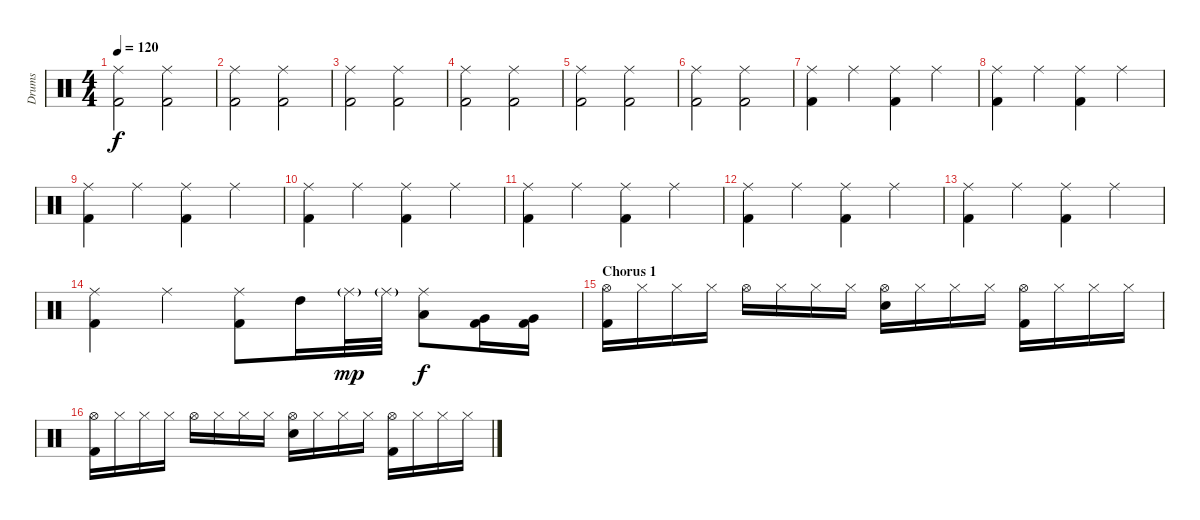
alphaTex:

\track ("Drums" "Drums") {instrument percussion}
\staff {score}
\articulation defaults
\ts (4 4)
\tempo 120
\clef neutral
\ks c
("Ride (middle)" "Kick (hit) 2").2{dy f} ("Ride (middle)" "Kick (hit) 2").2 |
("Ride (middle)" "Kick (hit) 2").2 ("Ride (middle)" "Kick (hit) 2").2 |
("Ride (middle)" "Kick (hit) 2").2 ("Ride (middle)" "Kick (hit) 2").2 |
("Ride (middle)" "Kick (hit) 2").2 ("Ride (middle)" "Kick (hit) 2").2 |
("Ride (middle)" "Kick (hit) 2").2 ("Ride (middle)" "Kick (hit) 2").2 |
("Ride (middle)" "Kick (hit) 2").2 ("Ride (middle)" "Kick (hit) 2").2 |
("Ride (middle)" "Kick (hit) 2").4 "Ride (middle)".4 ("Ride (middle)" "Kick (hit) 2").4 "Ride (middle)".4 |
("Ride (middle)" "Kick (hit) 2").4 "Ride (middle)".4 ("Ride (middle)" "Kick (hit) 2").4 "Ride (middle)".4 |
("Ride (middle)" "Kick (hit) 2").4 "Ride (middle)".4 ("Ride (middle)" "Kick (hit) 2").4 "Ride (middle)".4 |
("Ride (middle)" "Kick (hit) 2").4 "Ride (middle)".4 ("Ride (middle)" "Kick (hit) 2").4 "Ride (middle)".4 |
("Ride (middle)" "Kick (hit) 2").4 "Ride (middle)".4 ("Ride (middle)" "Kick (hit) 2").4 "Ride (middle)".4 |
("Ride (middle)" "Kick (hit) 2").4 "Ride (middle)".4 ("Ride (middle)" "Kick (hit) 2").4 "Ride (middle)".4 |
("Ride (middle)" "Kick (hit) 2").4 "Ride (middle)".4 ("Ride (middle)" "Kick (hit) 2").4 "Ride (middle)".4 |
("Ride (middle)" "Kick (hit) 2").4 "Ride (middle)".4 ("Ride (middle)" "Kick (hit) 2").8 "High Tom (hit)".16 "Ride (middle)"{g}.32{dy mp} "Ride (middle)"{g}.32 ("Ride (middle)" "Low Tom (hit)").8{dy f} ("Very Low Tom (hit)" "Kick (hit) 2").16 ("Very Low Tom (hit)" "Kick (hit) 2").16 |
\section ("" "Chorus 1")
("Hi-Hat (open)" "Kick (hit) 2").16 "Hi-Hat (closed)".16 "Hi-Hat (closed)".16 "Hi-Hat (closed)".16 "Hi-Hat (open)".16 "Hi-Hat (closed)".16 "Hi-Hat (closed)".16 "Hi-Hat (closed)".16 ("Hi-Hat (open)" "Snare (hit) 2").16 "Hi-Hat (closed)".16 "Hi-Hat (closed)".16 "Hi-Hat (closed)".16 ("Hi-Hat (open)" "Kick (hit) 2").16 "Hi-Hat (closed)".16 "Hi-Hat (closed)".16 "Hi-Hat (closed)".16 |
("Hi-Hat (open)" "Kick (hit) 2").16 "Hi-Hat (closed)".16 "Hi-Hat (closed)".16 "Hi-Hat (closed)".16 "Hi-Hat (open)".16 "Hi-Hat (closed)".16 "Hi-Hat (closed)".16 "Hi-Hat (closed)".16 ("Hi-Hat (open)" "Snare (hit) 2").16 "Hi-Hat (closed)".16 "Hi-Hat (closed)".16 "Hi-Hat (closed)".16 ("Hi-Hat (open)" "Kick (hit) 2").16 "Hi-Hat (closed)".16 "Hi-Hat (closed)".16 "Hi-Hat (closed)".16
